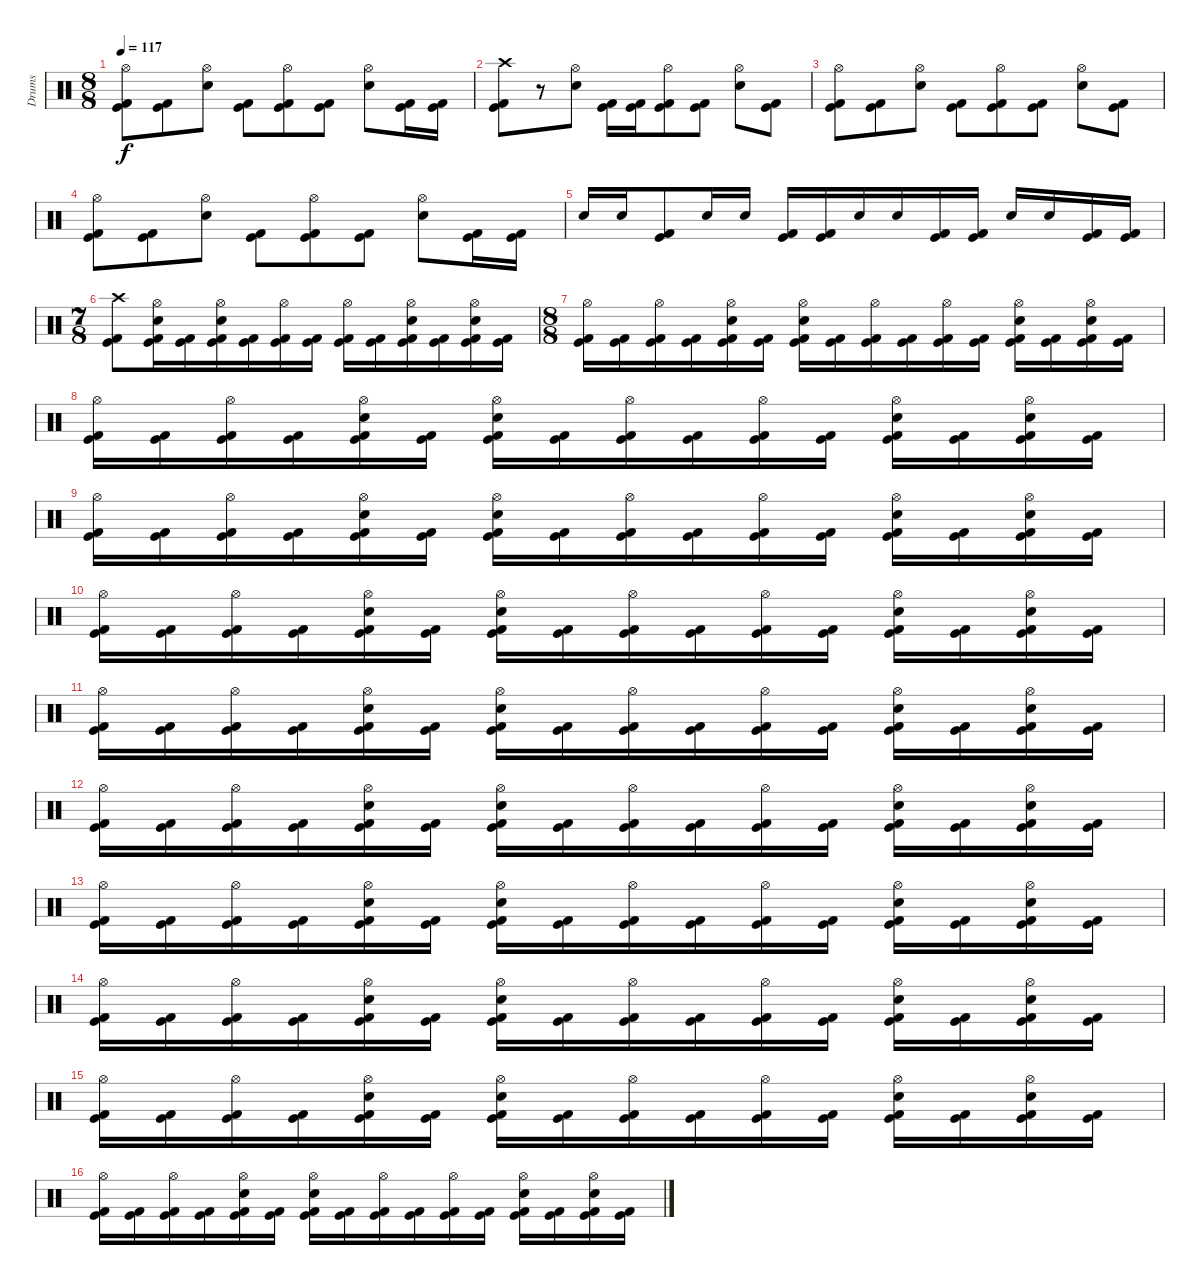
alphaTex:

\track ("Drums" "Drums") {instrument percussion}
\staff {score}
\articulation defaults
\ts (8 8)
\tempo 117
\clef neutral
\ks c
("Hi-Hat (open)" "Kick (hit)" "Kick (hit) 2").8{dy f} ("Kick (hit)" "Kick (hit) 2").8 ("Hi-Hat (open)" "Electric Snare (hit)").8 ("Kick (hit)" "Kick (hit) 2").8 ("Hi-Hat (open)" "Kick (hit)" "Kick (hit) 2").8 ("Kick (hit)" "Kick (hit) 2").8 ("Hi-Hat (open)" "Electric Snare (hit)").8 ("Kick (hit)" "Kick (hit) 2").16 ("Kick (hit)" "Kick (hit) 2").16 |
("Crash high (hit)" "Kick (hit)" "Kick (hit) 2").8 r.8 ("Hi-Hat (open)" "Electric Snare (hit)").8 ("Kick (hit)" "Kick (hit) 2").16 ("Kick (hit)" "Kick (hit) 2").16 ("Hi-Hat (open)" "Kick (hit)" "Kick (hit) 2").8 ("Kick (hit)" "Kick (hit) 2").8 ("Hi-Hat (open)" "Electric Snare (hit)").8 ("Kick (hit)" "Kick (hit) 2").8 |
("Hi-Hat (open)" "Kick (hit)" "Kick (hit) 2").8 ("Kick (hit)" "Kick (hit) 2").8 ("Hi-Hat (open)" "Electric Snare (hit)").8 ("Kick (hit)" "Kick (hit) 2").8 ("Hi-Hat (open)" "Kick (hit)" "Kick (hit) 2").8 ("Kick (hit)" "Kick (hit) 2").8 ("Hi-Hat (open)" "Electric Snare (hit)").8 ("Kick (hit)" "Kick (hit) 2").8 |
("Hi-Hat (open)" "Kick (hit)" "Kick (hit) 2").8 ("Kick (hit)" "Kick (hit) 2").8 ("Hi-Hat (open)" "Electric Snare (hit)").8 ("Kick (hit)" "Kick (hit) 2").8 ("Hi-Hat (open)" "Kick (hit)" "Kick (hit) 2").8 ("Kick (hit)" "Kick (hit) 2").8 ("Hi-Hat (open)" "Electric Snare (hit)").8 ("Kick (hit)" "Kick (hit) 2").16 ("Kick (hit)" "Kick (hit) 2").16 |
"Electric Snare (hit)".16 "Electric Snare (hit)".16 ("Kick (hit)" "Kick (hit) 2").8 "Electric Snare (hit)".16 "Electric Snare (hit)".16 ("Kick (hit)" "Kick (hit) 2").16 ("Kick (hit)" "Kick (hit) 2").16 "Electric Snare (hit)".16 "Electric Snare (hit)".16 ("Kick (hit)" "Kick (hit) 2").16 ("Kick (hit)" "Kick (hit) 2").16 "Electric Snare (hit)".16 "Electric Snare (hit)".16 ("Kick (hit)" "Kick (hit) 2").16 ("Kick (hit)" "Kick (hit) 2").16 |
\ts (7 8)
("Crash high (hit)" "Kick (hit)" "Kick (hit) 2").8 ("Hi-Hat (open)" "Electric Snare (hit)" "Kick (hit)" "Kick (hit) 2").16 ("Kick (hit)" "Kick (hit) 2").16 ("Hi-Hat (open)" "Electric Snare (hit)" "Kick (hit)" "Kick (hit) 2").16 ("Kick (hit)" "Kick (hit) 2").16 ("Hi-Hat (open)" "Kick (hit)" "Kick (hit) 2").16 ("Kick (hit)" "Kick (hit) 2").16 ("Hi-Hat (open)" "Kick (hit)" "Kick (hit) 2").16 ("Kick (hit)" "Kick (hit) 2").16 ("Hi-Hat (open)" "Electric Snare (hit)" "Kick (hit)" "Kick (hit) 2").16 ("Kick (hit)" "Kick (hit) 2").16 ("Hi-Hat (open)" "Electric Snare (hit)" "Kick (hit)" "Kick (hit) 2").16 ("Kick (hit)" "Kick (hit) 2").16 |
\ts (8 8)
("Hi-Hat (open)" "Kick (hit)" "Kick (hit) 2").16 ("Kick (hit)" "Kick (hit) 2").16 ("Hi-Hat (open)" "Kick (hit)" "Kick (hit) 2").16 ("Kick (hit)" "Kick (hit) 2").16 ("Hi-Hat (open)" "Electric Snare (hit)" "Kick (hit)" "Kick (hit) 2").16 ("Kick (hit)" "Kick (hit) 2").16 ("Hi-Hat (open)" "Electric Snare (hit)" "Kick (hit)" "Kick (hit) 2").16 ("Kick (hit)" "Kick (hit) 2").16 ("Hi-Hat (open)" "Kick (hit)" "Kick (hit) 2").16 ("Kick (hit)" "Kick (hit) 2").16 ("Hi-Hat (open)" "Kick (hit)" "Kick (hit) 2").16 ("Kick (hit)" "Kick (hit) 2").16 ("Hi-Hat (open)" "Electric Snare (hit)" "Kick (hit)" "Kick (hit) 2").16 ("Kick (hit)" "Kick (hit) 2").16 ("Hi-Hat (open)" "Electric Snare (hit)" "Kick (hit)" "Kick (hit) 2").16 ("Kick (hit)" "Kick (hit) 2").16 |
("Hi-Hat (open)" "Kick (hit)" "Kick (hit) 2").16 ("Kick (hit)" "Kick (hit) 2").16 ("Hi-Hat (open)" "Kick (hit)" "Kick (hit) 2").16 ("Kick (hit)" "Kick (hit) 2").16 ("Hi-Hat (open)" "Electric Snare (hit)" "Kick (hit)" "Kick (hit) 2").16 ("Kick (hit)" "Kick (hit) 2").16 ("Hi-Hat (open)" "Electric Snare (hit)" "Kick (hit)" "Kick (hit) 2").16 ("Kick (hit)" "Kick (hit) 2").16 ("Hi-Hat (open)" "Kick (hit)" "Kick (hit) 2").16 ("Kick (hit)" "Kick (hit) 2").16 ("Hi-Hat (open)" "Kick (hit)" "Kick (hit) 2").16 ("Kick (hit)" "Kick (hit) 2").16 ("Hi-Hat (open)" "Electric Snare (hit)" "Kick (hit)" "Kick (hit) 2").16 ("Kick (hit)" "Kick (hit) 2").16 ("Hi-Hat (open)" "Electric Snare (hit)" "Kick (hit)" "Kick (hit) 2").16 ("Kick (hit)" "Kick (hit) 2").16 |
("Hi-Hat (open)" "Kick (hit)" "Kick (hit) 2").16 ("Kick (hit)" "Kick (hit) 2").16 ("Hi-Hat (open)" "Kick (hit)" "Kick (hit) 2").16 ("Kick (hit)" "Kick (hit) 2").16 ("Hi-Hat (open)" "Electric Snare (hit)" "Kick (hit)" "Kick (hit) 2").16 ("Kick (hit)" "Kick (hit) 2").16 ("Hi-Hat (open)" "Electric Snare (hit)" "Kick (hit)" "Kick (hit) 2").16 ("Kick (hit)" "Kick (hit) 2").16 ("Hi-Hat (open)" "Kick (hit)" "Kick (hit) 2").16 ("Kick (hit)" "Kick (hit) 2").16 ("Hi-Hat (open)" "Kick (hit)" "Kick (hit) 2").16 ("Kick (hit)" "Kick (hit) 2").16 ("Hi-Hat (open)" "Electric Snare (hit)" "Kick (hit)" "Kick (hit) 2").16 ("Kick (hit)" "Kick (hit) 2").16 ("Hi-Hat (open)" "Electric Snare (hit)" "Kick (hit)" "Kick (hit) 2").16 ("Kick (hit)" "Kick (hit) 2").16 |
("Hi-Hat (open)" "Kick (hit)" "Kick (hit) 2").16 ("Kick (hit)" "Kick (hit) 2").16 ("Hi-Hat (open)" "Kick (hit)" "Kick (hit) 2").16 ("Kick (hit)" "Kick (hit) 2").16 ("Hi-Hat (open)" "Electric Snare (hit)" "Kick (hit)" "Kick (hit) 2").16 ("Kick (hit)" "Kick (hit) 2").16 ("Hi-Hat (open)" "Electric Snare (hit)" "Kick (hit)" "Kick (hit) 2").16 ("Kick (hit)" "Kick (hit) 2").16 ("Hi-Hat (open)" "Kick (hit)" "Kick (hit) 2").16 ("Kick (hit)" "Kick (hit) 2").16 ("Hi-Hat (open)" "Kick (hit)" "Kick (hit) 2").16 ("Kick (hit)" "Kick (hit) 2").16 ("Hi-Hat (open)" "Electric Snare (hit)" "Kick (hit)" "Kick (hit) 2").16 ("Kick (hit)" "Kick (hit) 2").16 ("Hi-Hat (open)" "Electric Snare (hit)" "Kick (hit)" "Kick (hit) 2").16 ("Kick (hit)" "Kick (hit) 2").16 |
("Hi-Hat (open)" "Kick (hit)" "Kick (hit) 2").16 ("Kick (hit)" "Kick (hit) 2").16 ("Hi-Hat (open)" "Kick (hit)" "Kick (hit) 2").16 ("Kick (hit)" "Kick (hit) 2").16 ("Hi-Hat (open)" "Electric Snare (hit)" "Kick (hit)" "Kick (hit) 2").16 ("Kick (hit)" "Kick (hit) 2").16 ("Hi-Hat (open)" "Electric Snare (hit)" "Kick (hit)" "Kick (hit) 2").16 ("Kick (hit)" "Kick (hit) 2").16 ("Hi-Hat (open)" "Kick (hit)" "Kick (hit) 2").16 ("Kick (hit)" "Kick (hit) 2").16 ("Hi-Hat (open)" "Kick (hit)" "Kick (hit) 2").16 ("Kick (hit)" "Kick (hit) 2").16 ("Hi-Hat (open)" "Electric Snare (hit)" "Kick (hit)" "Kick (hit) 2").16 ("Kick (hit)" "Kick (hit) 2").16 ("Hi-Hat (open)" "Electric Snare (hit)" "Kick (hit)" "Kick (hit) 2").16 ("Kick (hit)" "Kick (hit) 2").16 |
("Hi-Hat (open)" "Kick (hit)" "Kick (hit) 2").16 ("Kick (hit)" "Kick (hit) 2").16 ("Hi-Hat (open)" "Kick (hit)" "Kick (hit) 2").16 ("Kick (hit)" "Kick (hit) 2").16 ("Hi-Hat (open)" "Electric Snare (hit)" "Kick (hit)" "Kick (hit) 2").16 ("Kick (hit)" "Kick (hit) 2").16 ("Hi-Hat (open)" "Electric Snare (hit)" "Kick (hit)" "Kick (hit) 2").16 ("Kick (hit)" "Kick (hit) 2").16 ("Hi-Hat (open)" "Kick (hit)" "Kick (hit) 2").16 ("Kick (hit)" "Kick (hit) 2").16 ("Hi-Hat (open)" "Kick (hit)" "Kick (hit) 2").16 ("Kick (hit)" "Kick (hit) 2").16 ("Hi-Hat (open)" "Electric Snare (hit)" "Kick (hit)" "Kick (hit) 2").16 ("Kick (hit)" "Kick (hit) 2").16 ("Hi-Hat (open)" "Electric Snare (hit)" "Kick (hit)" "Kick (hit) 2").16 ("Kick (hit)" "Kick (hit) 2").16 |
("Hi-Hat (open)" "Kick (hit)" "Kick (hit) 2").16 ("Kick (hit)" "Kick (hit) 2").16 ("Hi-Hat (open)" "Kick (hit)" "Kick (hit) 2").16 ("Kick (hit)" "Kick (hit) 2").16 ("Hi-Hat (open)" "Electric Snare (hit)" "Kick (hit)" "Kick (hit) 2").16 ("Kick (hit)" "Kick (hit) 2").16 ("Hi-Hat (open)" "Electric Snare (hit)" "Kick (hit)" "Kick (hit) 2").16 ("Kick (hit)" "Kick (hit) 2").16 ("Hi-Hat (open)" "Kick (hit)" "Kick (hit) 2").16 ("Kick (hit)" "Kick (hit) 2").16 ("Hi-Hat (open)" "Kick (hit)" "Kick (hit) 2").16 ("Kick (hit)" "Kick (hit) 2").16 ("Hi-Hat (open)" "Electric Snare (hit)" "Kick (hit)" "Kick (hit) 2").16 ("Kick (hit)" "Kick (hit) 2").16 ("Hi-Hat (open)" "Electric Snare (hit)" "Kick (hit)" "Kick (hit) 2").16 ("Kick (hit)" "Kick (hit) 2").16 |
("Hi-Hat (open)" "Kick (hit)" "Kick (hit) 2").16 ("Kick (hit)" "Kick (hit) 2").16 ("Hi-Hat (open)" "Kick (hit)" "Kick (hit) 2").16 ("Kick (hit)" "Kick (hit) 2").16 ("Hi-Hat (open)" "Electric Snare (hit)" "Kick (hit)" "Kick (hit) 2").16 ("Kick (hit)" "Kick (hit) 2").16 ("Hi-Hat (open)" "Electric Snare (hit)" "Kick (hit)" "Kick (hit) 2").16 ("Kick (hit)" "Kick (hit) 2").16 ("Hi-Hat (open)" "Kick (hit)" "Kick (hit) 2").16 ("Kick (hit)" "Kick (hit) 2").16 ("Hi-Hat (open)" "Kick (hit)" "Kick (hit) 2").16 ("Kick (hit)" "Kick (hit) 2").16 ("Hi-Hat (open)" "Electric Snare (hit)" "Kick (hit)" "Kick (hit) 2").16 ("Kick (hit)" "Kick (hit) 2").16 ("Hi-Hat (open)" "Electric Snare (hit)" "Kick (hit)" "Kick (hit) 2").16 ("Kick (hit)" "Kick (hit) 2").16 |
("Hi-Hat (open)" "Kick (hit)" "Kick (hit) 2").16 ("Kick (hit)" "Kick (hit) 2").16 ("Hi-Hat (open)" "Kick (hit)" "Kick (hit) 2").16 ("Kick (hit)" "Kick (hit) 2").16 ("Hi-Hat (open)" "Electric Snare (hit)" "Kick (hit)" "Kick (hit) 2").16 ("Kick (hit)" "Kick (hit) 2").16 ("Hi-Hat (open)" "Electric Snare (hit)" "Kick (hit)" "Kick (hit) 2").16 ("Kick (hit)" "Kick (hit) 2").16 ("Hi-Hat (open)" "Kick (hit)" "Kick (hit) 2").16 ("Kick (hit)" "Kick (hit) 2").16 ("Hi-Hat (open)" "Kick (hit)" "Kick (hit) 2").16 ("Kick (hit)" "Kick (hit) 2").16 ("Hi-Hat (open)" "Electric Snare (hit)" "Kick (hit)" "Kick (hit) 2").16 ("Kick (hit)" "Kick (hit) 2").16 ("Hi-Hat (open)" "Electric Snare (hit)" "Kick (hit)" "Kick (hit) 2").16 ("Kick (hit)" "Kick (hit) 2").16 |
("Hi-Hat (open)" "Kick (hit)" "Kick (hit) 2").16 ("Kick (hit)" "Kick (hit) 2").16 ("Hi-Hat (open)" "Kick (hit)" "Kick (hit) 2").16 ("Kick (hit)" "Kick (hit) 2").16 ("Hi-Hat (open)" "Electric Snare (hit)" "Kick (hit)" "Kick (hit) 2").16 ("Kick (hit)" "Kick (hit) 2").16 ("Hi-Hat (open)" "Electric Snare (hit)" "Kick (hit)" "Kick (hit) 2").16 ("Kick (hit)" "Kick (hit) 2").16 ("Hi-Hat (open)" "Kick (hit)" "Kick (hit) 2").16 ("Kick (hit)" "Kick (hit) 2").16 ("Hi-Hat (open)" "Kick (hit)" "Kick (hit) 2").16 ("Kick (hit)" "Kick (hit) 2").16 ("Hi-Hat (open)" "Electric Snare (hit)" "Kick (hit)" "Kick (hit) 2").16 ("Kick (hit)" "Kick (hit) 2").16 ("Hi-Hat (open)" "Electric Snare (hit)" "Kick (hit)" "Kick (hit) 2").16 ("Kick (hit)" "Kick (hit) 2").16
